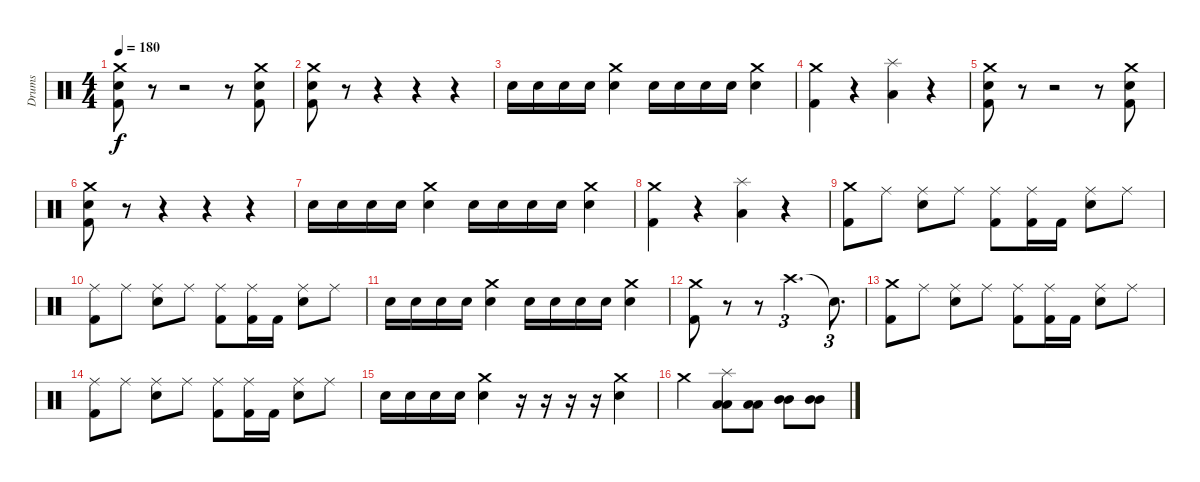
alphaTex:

\track ("Drums" "Drums") {instrument percussion}
\staff {score}
\articulation defaults
\ts (4 4)
\tempo 180
\clef neutral
\ks c
("Crash medium (hit)" "Electric Snare (hit)" "Kick (hit) 2").8{dy f} r.8 r.2 r.8 ("Crash medium (hit)" "Electric Snare (hit)" "Kick (hit) 2").8 |
("Crash medium (hit)" "Electric Snare (hit)" "Kick (hit) 2").8 r.8 r.4 r.4 r.4 |
"Electric Snare (hit)".16 "Electric Snare (hit)".16 "Electric Snare (hit)".16 "Electric Snare (hit)".16 ("Electric Snare (hit)" "Crash medium (hit)").4 "Electric Snare (hit)".16 "Electric Snare (hit)".16 "Electric Snare (hit)".16 "Electric Snare (hit)".16 ("Electric Snare (hit)" "Crash medium (hit)").4 |
("Crash medium (hit)" "Kick (hit) 2").4 r.4 ("Splash (hit)" "Low Tom (hit)").4 r.4 |
("Crash medium (hit)" "Electric Snare (hit)" "Kick (hit) 2").8 r.8 r.2 r.8 ("Crash medium (hit)" "Electric Snare (hit)" "Kick (hit) 2").8 |
("Crash medium (hit)" "Electric Snare (hit)" "Kick (hit) 2").8 r.8 r.4 r.4 r.4 |
"Electric Snare (hit)".16 "Electric Snare (hit)".16 "Electric Snare (hit)".16 "Electric Snare (hit)".16 ("Electric Snare (hit)" "Crash medium (hit)").4 "Electric Snare (hit)".16 "Electric Snare (hit)".16 "Electric Snare (hit)".16 "Electric Snare (hit)".16 ("Electric Snare (hit)" "Crash medium (hit)").4 |
("Crash medium (hit)" "Kick (hit) 2").4 r.4 ("Splash (hit)" "Low Tom (hit)").4 r.4 |
("Crash medium (hit)" "Kick (hit) 2").8 "Ride (middle)".8 ("Ride (middle)" "Electric Snare (hit)").8 "Ride (middle)".8 ("Ride (middle)" "Kick (hit) 2").8 ("Ride (middle)" "Kick (hit) 2").16 "Kick (hit) 2".16 ("Ride (middle)" "Electric Snare (hit)").8 "Ride (middle)".8 |
("Ride (middle)" "Kick (hit) 2").8 "Ride (middle)".8 ("Ride (middle)" "Electric Snare (hit)").8 "Ride (middle)".8 ("Ride (middle)" "Kick (hit) 2").8 ("Ride (middle)" "Kick (hit) 2").16 "Kick (hit) 2".16 ("Ride (middle)" "Electric Snare (hit)").8 "Ride (middle)".8 |
"Electric Snare (hit)".16 "Electric Snare (hit)".16 "Electric Snare (hit)".16 "Electric Snare (hit)".16 ("Electric Snare (hit)" "Crash medium (hit)").4 "Electric Snare (hit)".16 "Electric Snare (hit)".16 "Electric Snare (hit)".16 "Electric Snare (hit)".16 ("Electric Snare (hit)" "Crash medium (hit)").4 |
("Crash medium (hit)" "Kick (hit) 2").8 r.8 r.8 "Crash high (hit)".2{d tu (3 2)} "Snare (hit)"{t}.8{d tu (3 2)} |
("Crash medium (hit)" "Kick (hit) 2").8 "Ride (middle)".8 ("Ride (middle)" "Electric Snare (hit)").8 "Ride (middle)".8 ("Ride (middle)" "Kick (hit) 2").8 ("Ride (middle)" "Kick (hit) 2").16 "Kick (hit) 2".16 ("Ride (middle)" "Electric Snare (hit)").8 "Ride (middle)".8 |
("Ride (middle)" "Kick (hit) 2").8 "Ride (middle)".8 ("Ride (middle)" "Electric Snare (hit)").8 "Ride (middle)".8 ("Ride (middle)" "Kick (hit) 2").8 ("Ride (middle)" "Kick (hit) 2").16 "Kick (hit) 2".16 ("Ride (middle)" "Electric Snare (hit)").8 "Ride (middle)".8 |
"Electric Snare (hit)".16 "Electric Snare (hit)".16 "Electric Snare (hit)".16 "Electric Snare (hit)".16 ("Electric Snare (hit)" "Crash medium (hit)").4 r.16 r.16 r.16 r.16 ("Electric Snare (hit)" "Crash medium (hit)").4 |
"Crash medium (hit)".2 ("Splash (hit)" "Low Tom (hit)" "Low Tom (hit)").8 ("Low Tom (hit)" "Low Tom (hit)").8 ("Mid Tom (hit)" "Mid Tom (hit)").8 ("Mid Tom (hit)" "Mid Tom (hit)").8
